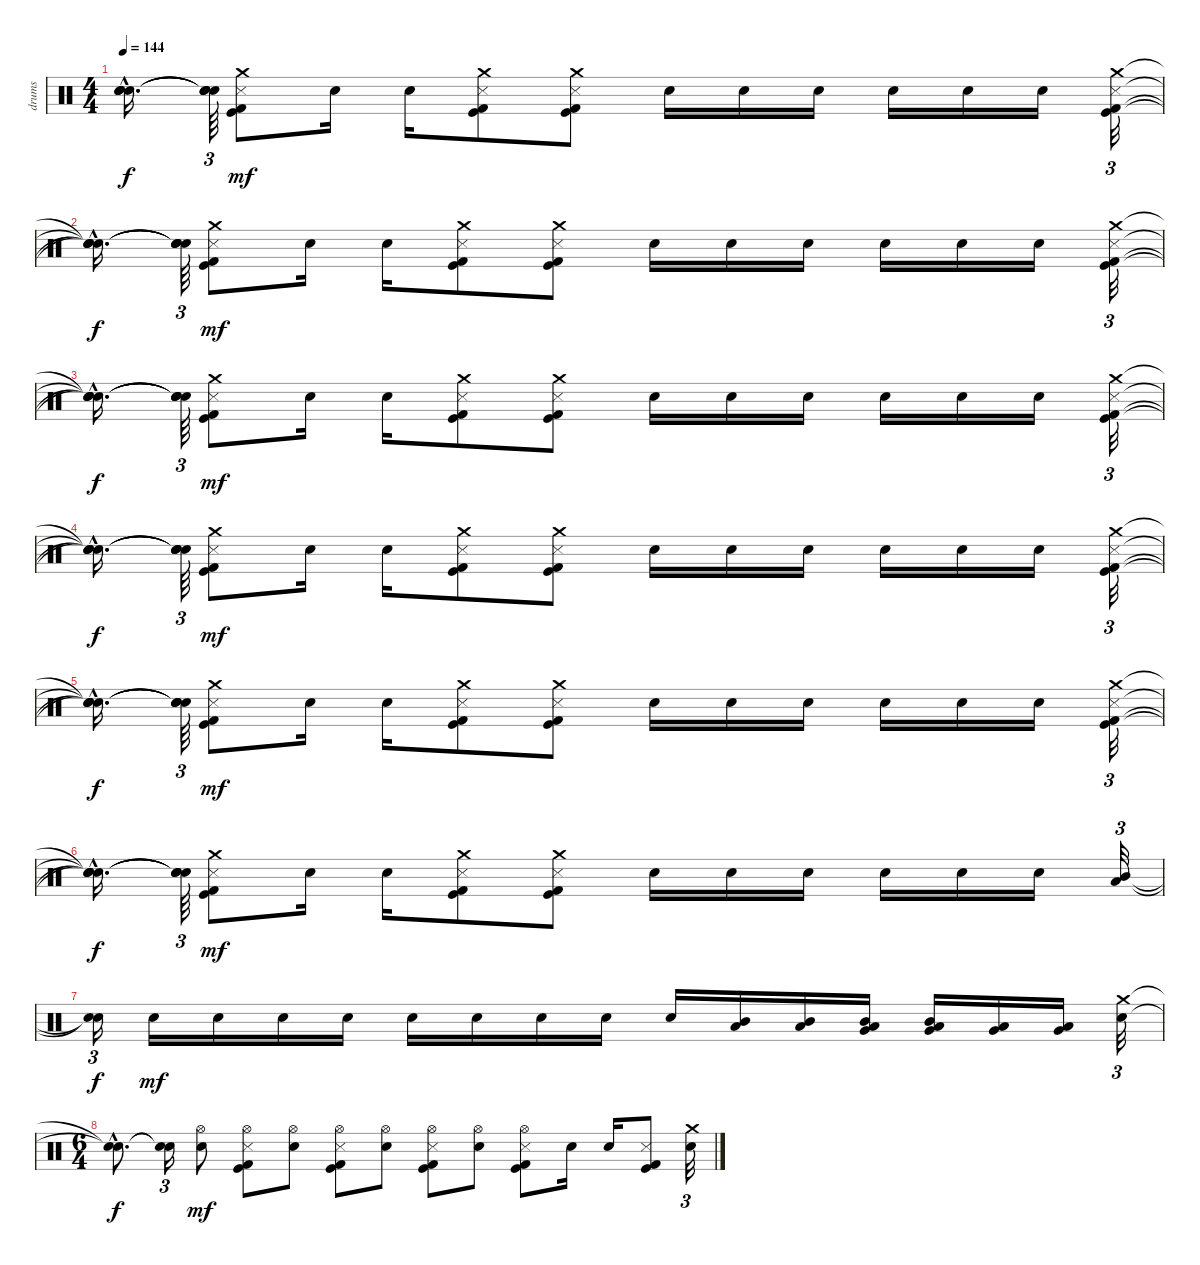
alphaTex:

\track ("drums" "drums") {instrument percussion}
\staff {score}
\articulation defaults
\ts (4 4)
\tempo 144
\clef neutral
\ks c
("Snare (hit)"{hac t} "Snare (hit)"{hac t} "Snare (hit)"{hac t} "Snare (hit)"{hac t}).16{d dy f} ("Snare (hit)"{t} "Snare (hit)"{t} "Snare (hit)"{t} "Snare (hit)"{t}).64{tu (3 2)} ("Crash medium (hit)" "Metronome (hit)" "Kick (hit)" "Kick (hit) 2").8{dy mf} "Snare (hit) 2".16 "Snare (hit) 2".16 ("Crash medium (hit)" "Metronome (hit)" "Kick (hit)" "Kick (hit) 2").8 ("Crash medium (hit)" "Metronome (hit)" "Kick (hit)" "Kick (hit) 2").8 "Snare (hit) 2".16 "Snare (hit) 2".16 "Snare (hit) 2".16 "Snare (hit) 2".16 "Snare (hit) 2".16 "Snare (hit) 2".16 ("Crash medium (hit)" "Metronome (hit)" "Kick (hit)" "Kick (hit) 2").32{tu (3 2)} |
("Snare (hit)"{hac t} "Snare (hit)"{hac t} "Snare (hit)"{hac t} "Snare (hit)"{hac t}).16{d dy f} ("Snare (hit)"{t} "Snare (hit)"{t} "Snare (hit)"{t} "Snare (hit)"{t}).64{tu (3 2)} ("Crash medium (hit)" "Metronome (hit)" "Kick (hit)" "Kick (hit) 2").8{dy mf} "Snare (hit) 2".16 "Snare (hit) 2".16 ("Crash medium (hit)" "Metronome (hit)" "Kick (hit)" "Kick (hit) 2").8 ("Crash medium (hit)" "Metronome (hit)" "Kick (hit)" "Kick (hit) 2").8 "Snare (hit) 2".16 "Snare (hit) 2".16 "Snare (hit) 2".16 "Snare (hit) 2".16 "Snare (hit) 2".16 "Snare (hit) 2".16 ("Crash medium (hit)" "Metronome (hit)" "Kick (hit)" "Kick (hit) 2").32{tu (3 2)} |
("Snare (hit)"{hac t} "Snare (hit)"{hac t} "Snare (hit)"{hac t} "Snare (hit)"{hac t}).16{d dy f} ("Snare (hit)"{t} "Snare (hit)"{t} "Snare (hit)"{t} "Snare (hit)"{t}).64{tu (3 2)} ("Crash medium (hit)" "Metronome (hit)" "Kick (hit)" "Kick (hit) 2").8{dy mf} "Snare (hit) 2".16 "Snare (hit) 2".16 ("Crash medium (hit)" "Metronome (hit)" "Kick (hit)" "Kick (hit) 2").8 ("Crash medium (hit)" "Metronome (hit)" "Kick (hit)" "Kick (hit) 2").8 "Snare (hit) 2".16 "Snare (hit) 2".16 "Snare (hit) 2".16 "Snare (hit) 2".16 "Snare (hit) 2".16 "Snare (hit) 2".16 ("Crash medium (hit)" "Metronome (hit)" "Kick (hit)" "Kick (hit) 2").32{tu (3 2)} |
("Snare (hit)"{hac t} "Snare (hit)"{hac t} "Snare (hit)"{hac t} "Snare (hit)"{hac t}).16{d dy f} ("Snare (hit)"{t} "Snare (hit)"{t} "Snare (hit)"{t} "Snare (hit)"{t}).64{tu (3 2)} ("Crash medium (hit)" "Metronome (hit)" "Kick (hit)" "Kick (hit) 2").8{dy mf} "Snare (hit) 2".16 "Snare (hit) 2".16 ("Crash medium (hit)" "Metronome (hit)" "Kick (hit)" "Kick (hit) 2").8 ("Crash medium (hit)" "Metronome (hit)" "Kick (hit)" "Kick (hit) 2").8 "Snare (hit) 2".16 "Snare (hit) 2".16 "Snare (hit) 2".16 "Snare (hit) 2".16 "Snare (hit) 2".16 "Snare (hit) 2".16 ("Crash medium (hit)" "Metronome (hit)" "Kick (hit)" "Kick (hit) 2").32{tu (3 2)} |
("Snare (hit)"{hac t} "Snare (hit)"{hac t} "Snare (hit)"{hac t} "Snare (hit)"{hac t}).16{d dy f} ("Snare (hit)"{t} "Snare (hit)"{t} "Snare (hit)"{t} "Snare (hit)"{t}).64{tu (3 2)} ("Crash medium (hit)" "Metronome (hit)" "Kick (hit)" "Kick (hit) 2").8{dy mf} "Snare (hit) 2".16 "Snare (hit) 2".16 ("Crash medium (hit)" "Metronome (hit)" "Kick (hit)" "Kick (hit) 2").8 ("Crash medium (hit)" "Metronome (hit)" "Kick (hit)" "Kick (hit) 2").8 "Snare (hit) 2".16 "Snare (hit) 2".16 "Snare (hit) 2".16 "Snare (hit) 2".16 "Snare (hit) 2".16 "Snare (hit) 2".16 ("Crash medium (hit)" "Metronome (hit)" "Kick (hit)" "Kick (hit) 2").32{tu (3 2)} |
("Snare (hit)"{hac t} "Snare (hit)"{hac t} "Snare (hit)"{hac t} "Snare (hit)"{hac t}).16{d dy f} ("Snare (hit)"{t} "Snare (hit)"{t} "Snare (hit)"{t} "Snare (hit)"{t}).64{tu (3 2)} ("Crash medium (hit)" "Metronome (hit)" "Kick (hit)" "Kick (hit) 2").8{dy mf} "Snare (hit) 2".16 "Snare (hit) 2".16 ("Crash medium (hit)" "Metronome (hit)" "Kick (hit)" "Kick (hit) 2").8 ("Crash medium (hit)" "Metronome (hit)" "Kick (hit)" "Kick (hit) 2").8 "Snare (hit) 2".16 "Snare (hit) 2".16 "Snare (hit) 2".16 "Snare (hit) 2".16 "Snare (hit) 2".16 "Snare (hit) 2".16 ("Low Tom (hit)" "Mid Tom (hit)").32{tu (3 2)} |
("Snare (hit)"{t} "Snare (hit)"{t}).16{tu (3 2) dy f} "Snare (hit) 2".16{dy mf} "Snare (hit) 2".16 "Snare (hit) 2".16 "Snare (hit) 2".16 "Snare (hit) 2".16 "Snare (hit) 2".16 "Snare (hit) 2".16 "Snare (hit) 2".16 "Snare (hit) 2".16 ("Low Tom (hit)" "Mid Tom (hit)").16 ("Low Tom (hit)" "Mid Tom (hit)").16 ("Very Low Tom (hit)" "Low Tom (hit)" "Mid Tom (hit)").16 ("Very Low Tom (hit)" "Low Tom (hit)" "Mid Tom (hit)").16 ("Very Low Tom (hit)" "Low Tom (hit)").16 ("Very Low Tom (hit)" "Low Tom (hit)").16 ("Snare (hit) 2" "Crash medium (hit)").32{tu (3 2)} |
\ts (6 4)
("Snare (hit)"{hac t} "Snare (hit)"{hac t}).8{d dy f} ("Snare (hit)"{t} "Snare (hit)"{t}).16{tu (3 2)} ("Snare (hit) 2" "Hi-Hat (open)").8{dy mf} ("Hi-Hat (open)" "Metronome (hit)" "Kick (hit)" "Kick (hit) 2").8 ("Snare (hit) 2" "Hi-Hat (open)").8 ("Hi-Hat (open)" "Metronome (hit)" "Kick (hit)" "Kick (hit) 2").8 ("Snare (hit) 2" "Hi-Hat (open)").8 ("Hi-Hat (open)" "Metronome (hit)" "Kick (hit)" "Kick (hit) 2").8 ("Snare (hit) 2" "Hi-Hat (open)").8 ("Hi-Hat (open)" "Metronome (hit)" "Kick (hit)" "Kick (hit) 2").8 "Snare (hit) 2".16 "Snare (hit) 2".16 ("Metronome (hit)" "Kick (hit)" "Kick (hit) 2").8 ("Snare (hit) 2" "Crash medium (hit)").32{tu (3 2)}
